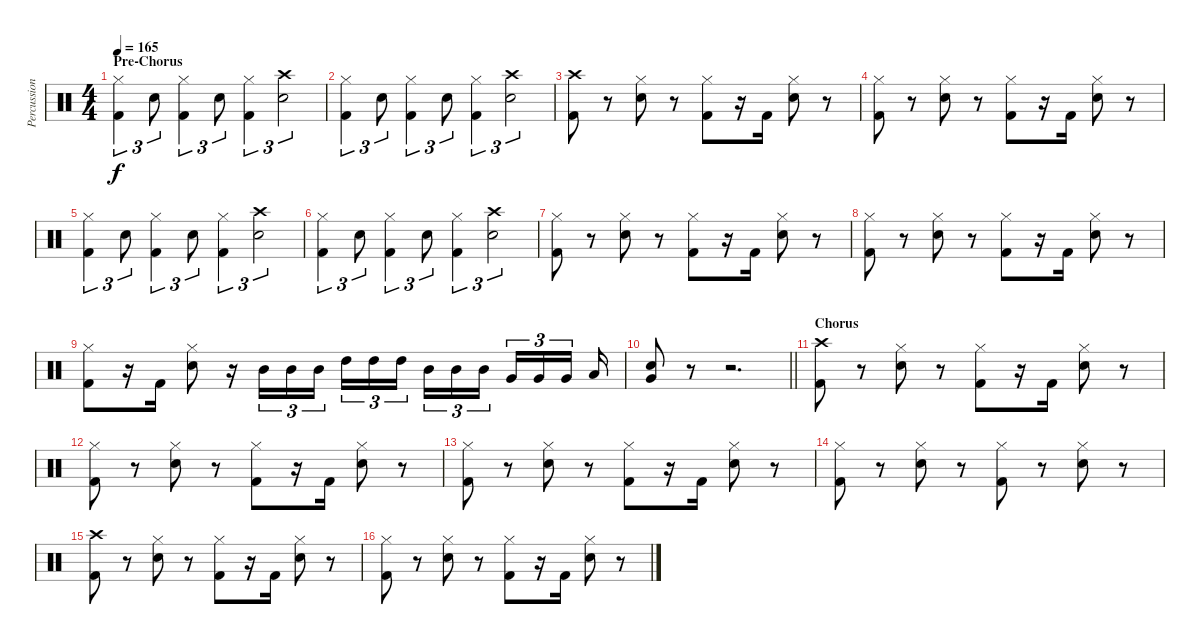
\track ("Percussion" "Percussion") {instrument percussion}
\staff {score}
\articulation defaults
\ts (4 4)
\section ("" "Pre-Chorus")
\tempo 165
\clef neutral
\ks c
("Hi-Hat (closed)" "Kick (hit) 2").4{tu (3 2) dy f} "Snare (hit) 2".8{tu (3 2)} ("Hi-Hat (closed)" "Kick (hit) 2").4{tu (3 2)} "Snare (hit) 2".8{tu (3 2)} ("Hi-Hat (closed)" "Kick (hit) 2").4{tu (3 2)} ("Crash high (hit)" "Snare (hit) 2").2{tu (3 2)} |
("Hi-Hat (closed)" "Kick (hit) 2").4{tu (3 2)} "Snare (hit) 2".8{tu (3 2)} ("Hi-Hat (closed)" "Kick (hit) 2").4{tu (3 2)} "Snare (hit) 2".8{tu (3 2)} ("Hi-Hat (closed)" "Kick (hit) 2").4{tu (3 2)} ("Crash high (hit)" "Snare (hit) 2").2{tu (3 2)} |
("Crash high (hit)" "Kick (hit) 2").8 r.8 ("Hi-Hat (closed)" "Snare (hit) 2").8 r.8 ("Hi-Hat (closed)" "Kick (hit) 2").8 r.16 "Kick (hit) 2".16 ("Hi-Hat (closed)" "Snare (hit) 2").8 r.8 |
("Hi-Hat (closed)" "Kick (hit) 2").8 r.8 ("Hi-Hat (closed)" "Snare (hit) 2").8 r.8 ("Hi-Hat (closed)" "Kick (hit) 2").8 r.16 "Kick (hit) 2".16 ("Hi-Hat (closed)" "Snare (hit) 2").8 r.8 |
("Hi-Hat (closed)" "Kick (hit) 2").4{tu (3 2)} "Snare (hit) 2".8{tu (3 2)} ("Hi-Hat (closed)" "Kick (hit) 2").4{tu (3 2)} "Snare (hit) 2".8{tu (3 2)} ("Hi-Hat (closed)" "Kick (hit) 2").4{tu (3 2)} ("Crash high (hit)" "Snare (hit) 2").2{tu (3 2)} |
("Hi-Hat (closed)" "Kick (hit) 2").4{tu (3 2)} "Snare (hit) 2".8{tu (3 2)} ("Hi-Hat (closed)" "Kick (hit) 2").4{tu (3 2)} "Snare (hit) 2".8{tu (3 2)} ("Hi-Hat (closed)" "Kick (hit) 2").4{tu (3 2)} ("Crash high (hit)" "Snare (hit) 2").2{tu (3 2)} |
("Hi-Hat (closed)" "Kick (hit) 2").8 r.8 ("Hi-Hat (closed)" "Snare (hit) 2").8 r.8 ("Hi-Hat (closed)" "Kick (hit) 2").8 r.16 "Kick (hit) 2".16 ("Hi-Hat (closed)" "Snare (hit) 2").8 r.8 |
("Hi-Hat (closed)" "Kick (hit) 2").8 r.8 ("Hi-Hat (closed)" "Snare (hit) 2").8 r.8 ("Hi-Hat (closed)" "Kick (hit) 2").8 r.16 "Kick (hit) 2".16 ("Hi-Hat (closed)" "Snare (hit) 2").8 r.8 |
("Hi-Hat (closed)" "Kick (hit) 2").8 r.16 "Kick (hit) 2".16 ("Hi-Hat (closed)" "Snare (hit) 2").8 r.16 "Mid Tom (hit)".16{tu (3 2)} "Mid Tom (hit)".16{tu (3 2)} "Mid Tom (hit)".16{tu (3 2) beam splitsecondary} "High Tom (hit)".16{tu (3 2)} "High Tom (hit)".16{tu (3 2)} "High Tom (hit)".16{tu (3 2) beam splitsecondary} "Mid Tom (hit)".16{tu (3 2)} "Mid Tom (hit)".16{tu (3 2)} "Mid Tom (hit)".16{tu (3 2) beam splitsecondary} "Very Low Tom (hit)".16{tu (3 2)} "Very Low Tom (hit)".16{tu (3 2)} "Very Low Tom (hit)".16{tu (3 2) beam splitsecondary} "Low Floor Tom (hit)".16 |
\barLineRight lightlight
("Very Low Tom (hit)" "Snare (hit) 2").8 r.8 r.2{d} |
\section ("" "Chorus")
("Crash high (hit)" "Kick (hit) 2").8 r.8 ("Hi-Hat (closed)" "Snare (hit) 2").8 r.8 ("Hi-Hat (closed)" "Kick (hit) 2").8 r.16 "Kick (hit) 2".16 ("Hi-Hat (closed)" "Snare (hit) 2").8 r.8 |
("Hi-Hat (closed)" "Kick (hit) 2").8 r.8 ("Hi-Hat (closed)" "Snare (hit) 2").8 r.8 ("Hi-Hat (closed)" "Kick (hit) 2").8 r.16 "Kick (hit) 2".16 ("Hi-Hat (closed)" "Snare (hit) 2").8 r.8 |
("Hi-Hat (closed)" "Kick (hit) 2").8 r.8 ("Hi-Hat (closed)" "Snare (hit) 2").8 r.8 ("Hi-Hat (closed)" "Kick (hit) 2").8 r.16 "Kick (hit) 2".16 ("Hi-Hat (closed)" "Snare (hit) 2").8 r.8 |
("Hi-Hat (closed)" "Kick (hit) 2").8 r.8 ("Hi-Hat (closed)" "Snare (hit) 2").8 r.8 ("Hi-Hat (closed)" "Kick (hit) 2").8 r.8 ("Hi-Hat (closed)" "Snare (hit) 2").8 r.8 |
("Crash high (hit)" "Kick (hit) 2").8 r.8 ("Hi-Hat (closed)" "Snare (hit) 2").8 r.8 ("Hi-Hat (closed)" "Kick (hit) 2").8 r.16 "Kick (hit) 2".16 ("Hi-Hat (closed)" "Snare (hit) 2").8 r.8 |
("Hi-Hat (closed)" "Kick (hit) 2").8 r.8 ("Hi-Hat (closed)" "Snare (hit) 2").8 r.8 ("Hi-Hat (closed)" "Kick (hit) 2").8 r.16 "Kick (hit) 2".16 ("Hi-Hat (closed)" "Snare (hit) 2").8 r.8
